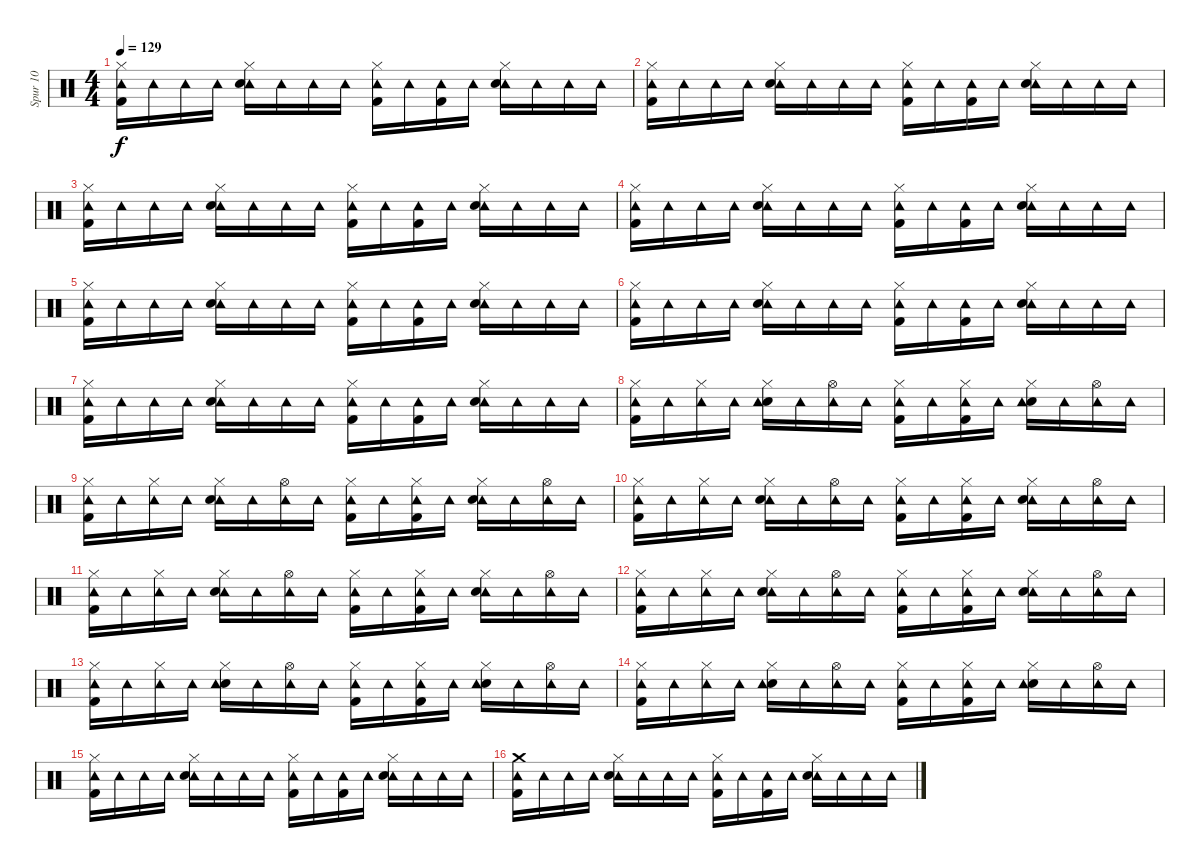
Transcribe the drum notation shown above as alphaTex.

\track ("Spur 10" "Spur 10") {instrument percussion}
\staff {score}
\articulation defaults
\ts (4 4)
\tempo 129
\clef neutral
\ks c
("Tambourine (hit)" "Kick (hit) 2" "Hi-Hat (closed)").16{dy f} "Tambourine (hit)".16 "Tambourine (hit)".16 "Tambourine (hit)".16 ("Tambourine (hit)" "Snare (hit) 2" "Hi-Hat (closed)").16 "Tambourine (hit)".16 "Tambourine (hit)".16 "Tambourine (hit)".16 ("Tambourine (hit)" "Kick (hit) 2" "Hi-Hat (closed)").16 "Tambourine (hit)".16 ("Tambourine (hit)" "Kick (hit) 2").16 "Tambourine (hit)".16 ("Tambourine (hit)" "Snare (hit) 2" "Hi-Hat (closed)").16 "Tambourine (hit)".16 "Tambourine (hit)".16 "Tambourine (hit)".16 |
("Tambourine (hit)" "Kick (hit) 2" "Hi-Hat (closed)").16 "Tambourine (hit)".16 "Tambourine (hit)".16 "Tambourine (hit)".16 ("Tambourine (hit)" "Snare (hit) 2" "Hi-Hat (closed)").16 "Tambourine (hit)".16 "Tambourine (hit)".16 "Tambourine (hit)".16 ("Tambourine (hit)" "Kick (hit) 2" "Hi-Hat (closed)").16 "Tambourine (hit)".16 ("Tambourine (hit)" "Kick (hit) 2").16 "Tambourine (hit)".16 ("Tambourine (hit)" "Snare (hit) 2" "Hi-Hat (closed)").16 "Tambourine (hit)".16 "Tambourine (hit)".16 "Tambourine (hit)".16 |
("Tambourine (hit)" "Kick (hit) 2" "Hi-Hat (closed)").16 "Tambourine (hit)".16 "Tambourine (hit)".16 "Tambourine (hit)".16 ("Tambourine (hit)" "Snare (hit) 2" "Hi-Hat (closed)").16 "Tambourine (hit)".16 "Tambourine (hit)".16 "Tambourine (hit)".16 ("Tambourine (hit)" "Kick (hit) 2" "Hi-Hat (closed)").16 "Tambourine (hit)".16 ("Tambourine (hit)" "Kick (hit) 2").16 "Tambourine (hit)".16 ("Tambourine (hit)" "Snare (hit) 2" "Hi-Hat (closed)").16 "Tambourine (hit)".16 "Tambourine (hit)".16 "Tambourine (hit)".16 |
("Tambourine (hit)" "Kick (hit) 2" "Hi-Hat (closed)").16 "Tambourine (hit)".16 "Tambourine (hit)".16 "Tambourine (hit)".16 ("Tambourine (hit)" "Snare (hit) 2" "Hi-Hat (closed)").16 "Tambourine (hit)".16 "Tambourine (hit)".16 "Tambourine (hit)".16 ("Tambourine (hit)" "Kick (hit) 2" "Hi-Hat (closed)").16 "Tambourine (hit)".16 ("Tambourine (hit)" "Kick (hit) 2").16 "Tambourine (hit)".16 ("Tambourine (hit)" "Snare (hit) 2" "Hi-Hat (closed)").16 "Tambourine (hit)".16 "Tambourine (hit)".16 "Tambourine (hit)".16 |
("Tambourine (hit)" "Kick (hit) 2" "Hi-Hat (closed)").16 "Tambourine (hit)".16 "Tambourine (hit)".16 "Tambourine (hit)".16 ("Tambourine (hit)" "Snare (hit) 2" "Hi-Hat (closed)").16 "Tambourine (hit)".16 "Tambourine (hit)".16 "Tambourine (hit)".16 ("Tambourine (hit)" "Kick (hit) 2" "Hi-Hat (closed)").16 "Tambourine (hit)".16 ("Tambourine (hit)" "Kick (hit) 2").16 "Tambourine (hit)".16 ("Tambourine (hit)" "Snare (hit) 2" "Hi-Hat (closed)").16 "Tambourine (hit)".16 "Tambourine (hit)".16 "Tambourine (hit)".16 |
("Tambourine (hit)" "Kick (hit) 2" "Hi-Hat (closed)").16 "Tambourine (hit)".16 "Tambourine (hit)".16 "Tambourine (hit)".16 ("Tambourine (hit)" "Snare (hit) 2" "Hi-Hat (closed)").16 "Tambourine (hit)".16 "Tambourine (hit)".16 "Tambourine (hit)".16 ("Tambourine (hit)" "Kick (hit) 2" "Hi-Hat (closed)").16 "Tambourine (hit)".16 ("Tambourine (hit)" "Kick (hit) 2").16 "Tambourine (hit)".16 ("Tambourine (hit)" "Snare (hit) 2" "Hi-Hat (closed)").16 "Tambourine (hit)".16 "Tambourine (hit)".16 "Tambourine (hit)".16 |
("Tambourine (hit)" "Kick (hit) 2" "Hi-Hat (closed)").16 "Tambourine (hit)".16 "Tambourine (hit)".16 "Tambourine (hit)".16 ("Tambourine (hit)" "Snare (hit) 2" "Hi-Hat (closed)").16 "Tambourine (hit)".16 "Tambourine (hit)".16 "Tambourine (hit)".16 ("Tambourine (hit)" "Kick (hit) 2" "Hi-Hat (closed)").16 "Tambourine (hit)".16 ("Tambourine (hit)" "Kick (hit) 2").16 "Tambourine (hit)".16 ("Tambourine (hit)" "Snare (hit) 2" "Hi-Hat (closed)").16 "Tambourine (hit)".16 "Tambourine (hit)".16 "Tambourine (hit)".16 |
("Hi-Hat (closed)" "Kick (hit) 2" "Tambourine (hit)").16 "Tambourine (hit)".16 ("Hi-Hat (closed)" "Tambourine (hit)").16 "Tambourine (hit)".16 ("Hi-Hat (closed)" "Snare (hit) 2" "Tambourine (hit)").16 "Tambourine (hit)".16 ("Hi-Hat (open)" "Tambourine (hit)").16 "Tambourine (hit)".16 ("Hi-Hat (closed)" "Kick (hit) 2" "Tambourine (hit)").16 "Tambourine (hit)".16 ("Hi-Hat (closed)" "Kick (hit) 2" "Tambourine (hit)").16 "Tambourine (hit)".16 ("Hi-Hat (closed)" "Snare (hit) 2" "Tambourine (hit)").16 "Tambourine (hit)".16 ("Hi-Hat (open)" "Tambourine (hit)").16 "Tambourine (hit)".16 |
("Tambourine (hit)" "Kick (hit) 2" "Hi-Hat (closed)").16 "Tambourine (hit)".16 ("Tambourine (hit)" "Hi-Hat (closed)").16 "Tambourine (hit)".16 ("Tambourine (hit)" "Snare (hit) 2" "Hi-Hat (closed)").16 "Tambourine (hit)".16 ("Tambourine (hit)" "Hi-Hat (open)").16 "Tambourine (hit)".16 ("Tambourine (hit)" "Kick (hit) 2" "Hi-Hat (closed)").16 "Tambourine (hit)".16 ("Tambourine (hit)" "Kick (hit) 2" "Hi-Hat (closed)").16 "Tambourine (hit)".16 ("Tambourine (hit)" "Snare (hit) 2" "Hi-Hat (closed)").16 "Tambourine (hit)".16 ("Tambourine (hit)" "Hi-Hat (open)").16 "Tambourine (hit)".16 |
("Tambourine (hit)" "Kick (hit) 2" "Hi-Hat (closed)").16 "Tambourine (hit)".16 ("Tambourine (hit)" "Hi-Hat (closed)").16 "Tambourine (hit)".16 ("Tambourine (hit)" "Snare (hit) 2" "Hi-Hat (closed)").16 "Tambourine (hit)".16 ("Tambourine (hit)" "Hi-Hat (open)").16 "Tambourine (hit)".16 ("Tambourine (hit)" "Kick (hit) 2" "Hi-Hat (closed)").16 "Tambourine (hit)".16 ("Tambourine (hit)" "Kick (hit) 2" "Hi-Hat (closed)").16 "Tambourine (hit)".16 ("Tambourine (hit)" "Snare (hit) 2" "Hi-Hat (closed)").16 "Tambourine (hit)".16 ("Tambourine (hit)" "Hi-Hat (open)").16 "Tambourine (hit)".16 |
("Tambourine (hit)" "Kick (hit) 2" "Hi-Hat (closed)").16 "Tambourine (hit)".16 ("Tambourine (hit)" "Hi-Hat (closed)").16 "Tambourine (hit)".16 ("Tambourine (hit)" "Snare (hit) 2" "Hi-Hat (closed)").16 "Tambourine (hit)".16 ("Tambourine (hit)" "Hi-Hat (open)").16 "Tambourine (hit)".16 ("Tambourine (hit)" "Kick (hit) 2" "Hi-Hat (closed)").16 "Tambourine (hit)".16 ("Tambourine (hit)" "Kick (hit) 2" "Hi-Hat (closed)").16 "Tambourine (hit)".16 ("Tambourine (hit)" "Snare (hit) 2" "Hi-Hat (closed)").16 "Tambourine (hit)".16 ("Tambourine (hit)" "Hi-Hat (open)").16 "Tambourine (hit)".16 |
("Tambourine (hit)" "Kick (hit) 2" "Hi-Hat (closed)").16 "Tambourine (hit)".16 ("Tambourine (hit)" "Hi-Hat (closed)").16 "Tambourine (hit)".16 ("Tambourine (hit)" "Snare (hit) 2" "Hi-Hat (closed)").16 "Tambourine (hit)".16 ("Tambourine (hit)" "Hi-Hat (open)").16 "Tambourine (hit)".16 ("Tambourine (hit)" "Kick (hit) 2" "Hi-Hat (closed)").16 "Tambourine (hit)".16 ("Tambourine (hit)" "Kick (hit) 2" "Hi-Hat (closed)").16 "Tambourine (hit)".16 ("Tambourine (hit)" "Snare (hit) 2" "Hi-Hat (closed)").16 "Tambourine (hit)".16 ("Tambourine (hit)" "Hi-Hat (open)").16 "Tambourine (hit)".16 |
("Hi-Hat (closed)" "Kick (hit) 2" "Tambourine (hit)").16 "Tambourine (hit)".16 ("Hi-Hat (closed)" "Tambourine (hit)").16 "Tambourine (hit)".16 ("Hi-Hat (closed)" "Snare (hit) 2" "Tambourine (hit)").16 "Tambourine (hit)".16 ("Hi-Hat (open)" "Tambourine (hit)").16 "Tambourine (hit)".16 ("Hi-Hat (closed)" "Kick (hit) 2" "Tambourine (hit)").16 "Tambourine (hit)".16 ("Hi-Hat (closed)" "Kick (hit) 2" "Tambourine (hit)").16 "Tambourine (hit)".16 ("Hi-Hat (closed)" "Snare (hit) 2" "Tambourine (hit)").16 "Tambourine (hit)".16 ("Hi-Hat (open)" "Tambourine (hit)").16 "Tambourine (hit)".16 |
("Hi-Hat (closed)" "Kick (hit) 2" "Tambourine (hit)").16 "Tambourine (hit)".16 ("Hi-Hat (closed)" "Tambourine (hit)").16 "Tambourine (hit)".16 ("Hi-Hat (closed)" "Snare (hit) 2" "Tambourine (hit)").16 "Tambourine (hit)".16 ("Hi-Hat (open)" "Tambourine (hit)").16 "Tambourine (hit)".16 ("Hi-Hat (closed)" "Kick (hit) 2" "Tambourine (hit)").16 "Tambourine (hit)".16 ("Hi-Hat (closed)" "Kick (hit) 2" "Tambourine (hit)").16 "Tambourine (hit)".16 ("Hi-Hat (closed)" "Snare (hit) 2" "Tambourine (hit)").16 "Tambourine (hit)".16 ("Hi-Hat (open)" "Tambourine (hit)").16 "Tambourine (hit)".16 |
("Tambourine (hit)" "Kick (hit) 2" "Hi-Hat (closed)").16 "Tambourine (hit)".16 "Tambourine (hit)".16 "Tambourine (hit)".16 ("Tambourine (hit)" "Snare (hit) 2" "Hi-Hat (closed)").16 "Tambourine (hit)".16 "Tambourine (hit)".16 "Tambourine (hit)".16 ("Tambourine (hit)" "Kick (hit) 2" "Hi-Hat (closed)").16 "Tambourine (hit)".16 ("Tambourine (hit)" "Kick (hit) 2").16 "Tambourine (hit)".16 ("Tambourine (hit)" "Snare (hit) 2" "Hi-Hat (closed)").16 "Tambourine (hit)".16 "Tambourine (hit)".16 "Tambourine (hit)".16 |
("Crash medium (hit)" "Tambourine (hit)" "Kick (hit) 2").16 "Tambourine (hit)".16 "Tambourine (hit)".16 "Tambourine (hit)".16 ("Tambourine (hit)" "Snare (hit) 2" "Hi-Hat (closed)").16 "Tambourine (hit)".16 "Tambourine (hit)".16 "Tambourine (hit)".16 ("Tambourine (hit)" "Kick (hit) 2" "Hi-Hat (closed)").16 "Tambourine (hit)".16 ("Tambourine (hit)" "Kick (hit) 2").16 "Tambourine (hit)".16 ("Tambourine (hit)" "Snare (hit) 2" "Hi-Hat (closed)").16 "Tambourine (hit)".16 "Tambourine (hit)".16 "Tambourine (hit)".16
